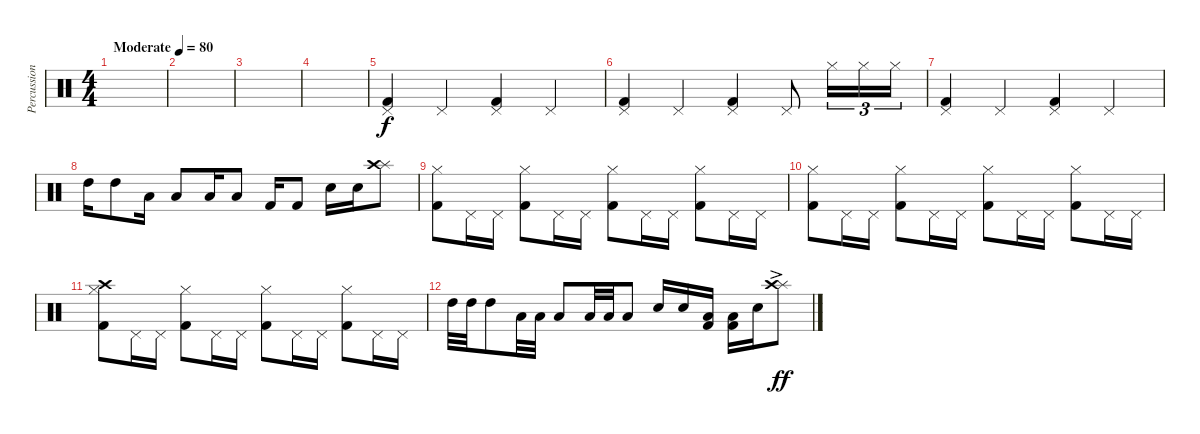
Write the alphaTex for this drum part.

\track ("Percussion" "Percussion") {instrument percussion}
\staff {score}
\articulation defaults
\ts (4 4)
\tempo (80 "Moderate")
\clef neutral
\ks c
|
|
|
|
("Kick (hit) 2" "Pedal Hi-Hat (hit)").4 "Pedal Hi-Hat (hit)".4 ("Kick (hit) 2" "Pedal Hi-Hat (hit)").4 "Pedal Hi-Hat (hit)".4 |
("Kick (hit) 2" "Pedal Hi-Hat (hit)").4 "Pedal Hi-Hat (hit)".4 ("Kick (hit) 2" "Pedal Hi-Hat (hit)").4 "Pedal Hi-Hat (hit)".8 "Hi-Hat (closed)".16{tu (3 2)} "Hi-Hat (closed)".16{tu (3 2)} "Hi-Hat (closed)".16{tu (3 2)} |
("Kick (hit) 2" "Pedal Hi-Hat (hit)").4 "Pedal Hi-Hat (hit)".4 ("Kick (hit) 2" "Pedal Hi-Hat (hit)").4 "Pedal Hi-Hat (hit)".4 |
"High Tom (hit)".16 "High Tom (hit)".8 "Low Tom (hit)".16 "Low Tom (hit)".8 "Low Floor Tom (hit)".16 "Low Floor Tom (hit)".8 "Kick (hit) 2".16 "Kick (hit) 2".8 "Snare (hit) 2".16 "Snare (hit) 2".16 ("Splash (hit)" "Crash high (hit)").8 |
("Kick (hit) 2" "Hi-Hat (closed)").8 "Pedal Hi-Hat (hit)".16 "Pedal Hi-Hat (hit)".16 ("Kick (hit) 2" "Hi-Hat (closed)").8 "Pedal Hi-Hat (hit)".16 "Pedal Hi-Hat (hit)".16 ("Kick (hit) 2" "Hi-Hat (closed)").8 "Pedal Hi-Hat (hit)".16 "Pedal Hi-Hat (hit)".16 ("Kick (hit) 2" "Hi-Hat (closed)").8 "Pedal Hi-Hat (hit)".16 "Pedal Hi-Hat (hit)".16 |
("Kick (hit) 2" "Hi-Hat (closed)").8 "Pedal Hi-Hat (hit)".16 "Pedal Hi-Hat (hit)".16 ("Kick (hit) 2" "Hi-Hat (closed)").8 "Pedal Hi-Hat (hit)".16 "Pedal Hi-Hat (hit)".16 ("Kick (hit) 2" "Hi-Hat (closed)").8 "Pedal Hi-Hat (hit)".16 "Pedal Hi-Hat (hit)".16 ("Kick (hit) 2" "Hi-Hat (closed)").8 "Pedal Hi-Hat (hit)".16 "Pedal Hi-Hat (hit)".16 |
("Crash high (hit)" "Kick (hit) 2" "Hi-Hat (closed)").8 "Pedal Hi-Hat (hit)".16 "Pedal Hi-Hat (hit)".16 ("Kick (hit) 2" "Hi-Hat (closed)").8 "Pedal Hi-Hat (hit)".16 "Pedal Hi-Hat (hit)".16 ("Kick (hit) 2" "Hi-Hat (closed)").8 "Pedal Hi-Hat (hit)".16 "Pedal Hi-Hat (hit)".16 ("Kick (hit) 2" "Hi-Hat (closed)").8 "Pedal Hi-Hat (hit)".16 "Pedal Hi-Hat (hit)".16 |
"High Tom (hit)".32 "High Tom (hit)".32 "High Tom (hit)".8 "Low Tom (hit)".32 "Low Tom (hit)".32 "Low Tom (hit)".8 "Low Floor Tom (hit)".32 "Low Floor Tom (hit)".32 "Low Floor Tom (hit)".8 "Snare (hit) 2".16 "Snare (hit) 2".16 ("Low Floor Tom (hit)" "Kick (hit) 2").16 ("Low Floor Tom (hit)" "Kick (hit) 2").16 "Snare (hit) 2".16 ("Splash (hit)"{ac} "Crash high (hit)").8{dy ff}
